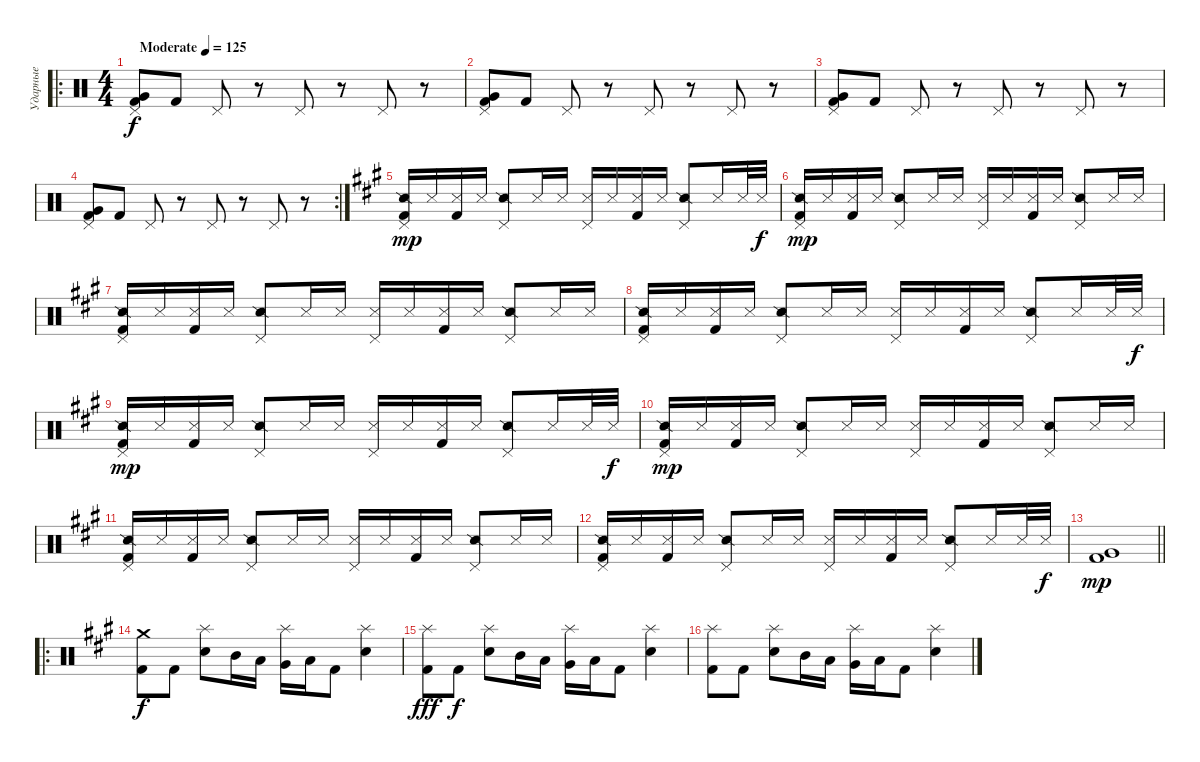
\track ("Ударные" "Ударные") {instrument percussion}
\staff {score}
\articulation defaults
\ro
\ts (4 4)
\tempo (125 "Moderate")
\clef neutral
\ks c
("Kick (hit) 2" "Very Low Tom (hit)" "Pedal Hi-Hat (hit)").8{dy f} "Kick (hit) 2".8 "Pedal Hi-Hat (hit)".8 r.8 "Pedal Hi-Hat (hit)".8 r.8 "Pedal Hi-Hat (hit)".8 r.8 |
("Kick (hit) 2" "Very Low Tom (hit)" "Pedal Hi-Hat (hit)").8 "Kick (hit) 2".8 "Pedal Hi-Hat (hit)".8 r.8 "Pedal Hi-Hat (hit)".8 r.8 "Pedal Hi-Hat (hit)".8 r.8 |
("Kick (hit) 2" "Very Low Tom (hit)" "Pedal Hi-Hat (hit)").8 "Kick (hit) 2".8 "Pedal Hi-Hat (hit)".8 r.8 "Pedal Hi-Hat (hit)".8 r.8 "Pedal Hi-Hat (hit)".8 r.8 |
\rc 2
("Kick (hit) 2" "Very Low Tom (hit)" "Pedal Hi-Hat (hit)").8 "Kick (hit) 2".8 "Pedal Hi-Hat (hit)".8 r.8 "Pedal Hi-Hat (hit)".8 r.8 "Pedal Hi-Hat (hit)".8 r.8 |
\ks a
("Snare (side stick) 2" "Pedal Hi-Hat (hit)" "Kick (hit) 2").16{dy mp} "Metronome (hit)".16 ("Metronome (hit)" "Kick (hit) 2").16 "Metronome (hit)".16 ("Snare (side stick) 2" "Pedal Hi-Hat (hit)").8 "Metronome (hit)".16 "Metronome (hit)".16 ("Metronome (hit)" "Pedal Hi-Hat (hit)").16 "Metronome (hit)".16 ("Metronome (hit)" "Kick (hit) 2").16 "Metronome (hit)".16 ("Snare (side stick) 2" "Pedal Hi-Hat (hit)").8 "Metronome (hit)".16 "Metronome (hit)".32 "Metronome (hit)".32{dy f} |
("Snare (side stick) 2" "Pedal Hi-Hat (hit)" "Kick (hit) 2").16{dy mp} "Metronome (hit)".16 ("Metronome (hit)" "Kick (hit) 2").16 "Metronome (hit)".16 ("Snare (side stick) 2" "Pedal Hi-Hat (hit)").8 "Metronome (hit)".16 "Metronome (hit)".16 ("Metronome (hit)" "Pedal Hi-Hat (hit)").16 "Metronome (hit)".16 ("Metronome (hit)" "Kick (hit) 2").16 "Metronome (hit)".16 ("Snare (side stick) 2" "Pedal Hi-Hat (hit)").8 "Metronome (hit)".16 "Metronome (hit)".16 |
("Snare (side stick) 2" "Pedal Hi-Hat (hit)" "Kick (hit) 2").16 "Metronome (hit)".16 ("Metronome (hit)" "Kick (hit) 2").16 "Metronome (hit)".16 ("Snare (side stick) 2" "Pedal Hi-Hat (hit)").8 "Metronome (hit)".16 "Metronome (hit)".16 ("Metronome (hit)" "Pedal Hi-Hat (hit)").16 "Metronome (hit)".16 ("Metronome (hit)" "Kick (hit) 2").16 "Metronome (hit)".16 ("Snare (side stick) 2" "Pedal Hi-Hat (hit)").8 "Metronome (hit)".16 "Metronome (hit)".16 |
("Snare (side stick) 2" "Pedal Hi-Hat (hit)" "Kick (hit) 2").16 "Metronome (hit)".16 ("Metronome (hit)" "Kick (hit) 2").16 "Metronome (hit)".16 ("Snare (side stick) 2" "Pedal Hi-Hat (hit)").8 "Metronome (hit)".16 "Metronome (hit)".16 ("Metronome (hit)" "Pedal Hi-Hat (hit)").16 "Metronome (hit)".16 ("Metronome (hit)" "Kick (hit) 2").16 "Metronome (hit)".16 ("Snare (side stick) 2" "Pedal Hi-Hat (hit)").8 "Metronome (hit)".16 "Metronome (hit)".32 "Metronome (hit)".32{dy f} |
("Snare (side stick) 2" "Pedal Hi-Hat (hit)" "Kick (hit) 2").16{dy mp} "Metronome (hit)".16 ("Metronome (hit)" "Kick (hit) 2").16 "Metronome (hit)".16 ("Snare (side stick) 2" "Pedal Hi-Hat (hit)").8 "Metronome (hit)".16 "Metronome (hit)".16 ("Metronome (hit)" "Pedal Hi-Hat (hit)").16 "Metronome (hit)".16 ("Metronome (hit)" "Kick (hit) 2").16 "Metronome (hit)".16 ("Snare (side stick) 2" "Pedal Hi-Hat (hit)").8 "Metronome (hit)".16 "Metronome (hit)".32 "Metronome (hit)".32{dy f} |
("Snare (side stick) 2" "Pedal Hi-Hat (hit)" "Kick (hit) 2").16{dy mp} "Metronome (hit)".16 ("Metronome (hit)" "Kick (hit) 2").16 "Metronome (hit)".16 ("Snare (side stick) 2" "Pedal Hi-Hat (hit)").8 "Metronome (hit)".16 "Metronome (hit)".16 ("Metronome (hit)" "Pedal Hi-Hat (hit)").16 "Metronome (hit)".16 ("Metronome (hit)" "Kick (hit) 2").16 "Metronome (hit)".16 ("Snare (side stick) 2" "Pedal Hi-Hat (hit)").8 "Metronome (hit)".16 "Metronome (hit)".16 |
("Snare (side stick) 2" "Pedal Hi-Hat (hit)" "Kick (hit) 2").16 "Metronome (hit)".16 ("Metronome (hit)" "Kick (hit) 2").16 "Metronome (hit)".16 ("Snare (side stick) 2" "Pedal Hi-Hat (hit)").8 "Metronome (hit)".16 "Metronome (hit)".16 ("Metronome (hit)" "Pedal Hi-Hat (hit)").16 "Metronome (hit)".16 ("Metronome (hit)" "Kick (hit) 2").16 "Metronome (hit)".16 ("Snare (side stick) 2" "Pedal Hi-Hat (hit)").8 "Metronome (hit)".16 "Metronome (hit)".16 |
("Snare (side stick) 2" "Pedal Hi-Hat (hit)" "Kick (hit) 2").16 "Metronome (hit)".16 ("Metronome (hit)" "Kick (hit) 2").16 "Metronome (hit)".16 ("Snare (side stick) 2" "Pedal Hi-Hat (hit)").8 "Metronome (hit)".16 "Metronome (hit)".16 ("Metronome (hit)" "Pedal Hi-Hat (hit)").16 "Metronome (hit)".16 ("Metronome (hit)" "Kick (hit) 2").16 "Metronome (hit)".16 ("Snare (side stick) 2" "Pedal Hi-Hat (hit)").8 "Metronome (hit)".16 "Metronome (hit)".32 "Metronome (hit)".32{dy f} |
\barLineRight lightlight
("Very Low Tom (hit)" "Kick (hit) 2").1{dy mp} |
\ro
("Crash medium (hit)" "Kick (hit) 2").8{dy f} "Kick (hit) 2".8 ("Splash (hit)" "Snare (hit) 2").8 "Mid Tom (hit)".16 "Low Tom (hit)".16 ("Splash (hit)" "Very Low Tom (hit)").16 "Low Floor Tom (hit)".16 "Kick (hit) 2".8 ("Splash (hit)" "Snare (hit) 2").4 |
("Splash (hit)" "Kick (hit) 2").8{dy fff} "Kick (hit) 2".8{dy f} ("Splash (hit)" "Snare (hit) 2").8 "Mid Tom (hit)".16 "Low Tom (hit)".16 ("Splash (hit)" "Very Low Tom (hit)").16 "Low Floor Tom (hit)".16 "Kick (hit) 2".8 ("Splash (hit)" "Snare (hit) 2").4 |
("Splash (hit)" "Kick (hit) 2").8 "Kick (hit) 2".8 ("Splash (hit)" "Snare (hit) 2").8 "Mid Tom (hit)".16 "Low Tom (hit)".16 ("Splash (hit)" "Very Low Tom (hit)").16 "Low Floor Tom (hit)".16 "Kick (hit) 2".8 ("Splash (hit)" "Snare (hit) 2").4
